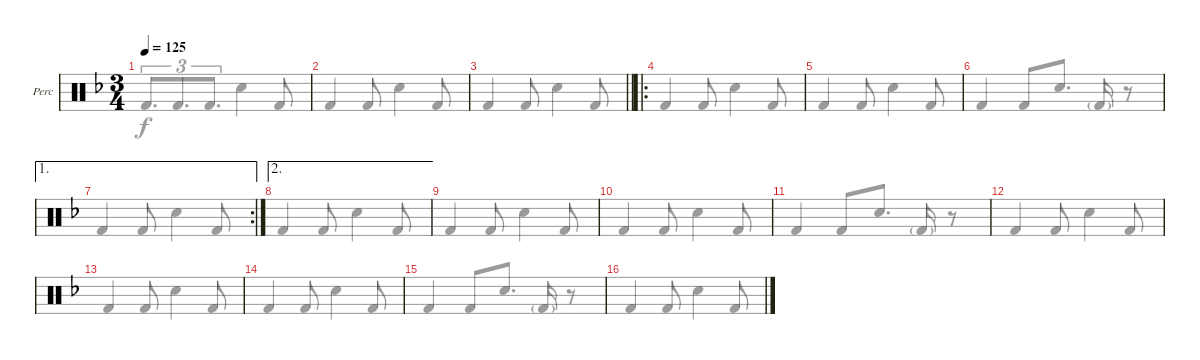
\defaultSystemsLayout 4
\bracketExtendMode groupsimilarinstruments
\firstSystemTrackNameOrientation horizontal
\otherSystemsTrackNameOrientation horizontal
\track ("Body Percussion" "Perc") {instrument percussion}
\staff {score}
\articulation defaults
\voice
\ts (3 4)
\scale
0.569949
\tempo 125
\accidentals auto
\clef neutral
\ottava regular
\simile none
\ks dminor
|
|
\barLineRight lightlight
|
\ro
|
|
|
\ae 1
\rc 2
|
\ae 2
|
|
|
|
|
|
|
|
\voice
\clef neutral
\ottava regular
\simile none
\ks dminor "Kick (hit) 2"{acc forcenatural}.8{d tu (3 2) dy f beam Up} "Kick (hit) 2"{acc forcenatural}.8{d tu (3 2) beam Up} "Kick (hit) 2"{acc forcenatural}.8{d tu (3 2) beam Up} "Snare (hit) 2"{acc forcenatural}.4{beam Down} "Kick (hit) 2"{acc forcenatural}.8{beam Up}
|
"Kick (hit) 2"{acc forcenatural}.4{beam Up} "Kick (hit) 2"{acc forcenatural}.8{beam Up} "Snare (hit) 2"{acc forcenatural}.4{beam Down} "Kick (hit) 2"{acc forcenatural}.8{beam Up} |
\barLineRight lightlight "Kick (hit) 2"{acc forcenatural}.4{beam Up} "Kick (hit) 2"{acc forcenatural}.8{beam Up} "Snare (hit) 2"{acc forcenatural}.4{beam Down} "Kick (hit) 2"{acc forcenatural}.8{beam Up}
|
"Kick (hit) 2"{acc forcenatural}.4{beam Up} "Kick (hit) 2"{acc forcenatural}.8{beam Up} "Snare (hit) 2"{acc forcenatural}.4{beam Down} "Kick (hit) 2"{acc forcenatural}.8{beam Up} |
"Kick (hit) 2"{acc forcenatural}.4{beam Up} "Kick (hit) 2"{acc forcenatural}.8{beam Up} "Snare (hit) 2"{acc forcenatural}.4{beam Down} "Kick (hit) 2"{acc forcenatural}.8{beam Up} |
"Kick (hit) 2"{acc forcenatural}.4{beam Up} "Kick (hit) 2"{acc forcenatural}.8{beam Up} "Snare (hit) 2"{acc forcenatural}.8{d beam Up} "Kick (hit) 2"{g acc forcenatural}.16{beam Up} r.8{beam Up} |
"Kick (hit) 2"{acc forcenatural}.4{beam Up} "Kick (hit) 2"{acc forcenatural}.8{beam Up} "Snare (hit) 2"{acc forcenatural}.4{beam Down} "Kick (hit) 2"{acc forcenatural}.8{beam Up} |
"Kick (hit) 2"{acc forcenatural}.4{beam Up} "Kick (hit) 2"{acc forcenatural}.8{beam Up} "Snare (hit) 2"{acc forcenatural}.4{beam Down} "Kick (hit) 2"{acc forcenatural}.8{beam Up} |
"Kick (hit) 2"{acc forcenatural}.4{beam Up} "Kick (hit) 2"{acc forcenatural}.8{beam Up} "Snare (hit) 2"{acc forcenatural}.4{beam Down} "Kick (hit) 2"{acc forcenatural}.8{beam Up} |
"Kick (hit) 2"{acc forcenatural}.4{beam Up} "Kick (hit) 2"{acc forcenatural}.8{beam Up} "Snare (hit) 2"{acc forcenatural}.4{beam Down} "Kick (hit) 2"{acc forcenatural}.8{beam Up} |
"Kick (hit) 2"{acc forcenatural}.4{beam Up} "Kick (hit) 2"{acc forcenatural}.8{beam Up} "Snare (hit) 2"{acc forcenatural}.8{d beam Up} "Kick (hit) 2"{g acc forcenatural}.16{beam Up} r.8{beam Up} |
"Kick (hit) 2"{acc forcenatural}.4{beam Up} "Kick (hit) 2"{acc forcenatural}.8{beam Up} "Snare (hit) 2"{acc forcenatural}.4{beam Down} "Kick (hit) 2"{acc forcenatural}.8{beam Up} |
"Kick (hit) 2"{acc forcenatural}.4{beam Up} "Kick (hit) 2"{acc forcenatural}.8{beam Up} "Snare (hit) 2"{acc forcenatural}.4{beam Down} "Kick (hit) 2"{acc forcenatural}.8{beam Up} |
"Kick (hit) 2"{acc forcenatural}.4{beam Up} "Kick (hit) 2"{acc forcenatural}.8{beam Up} "Snare (hit) 2"{acc forcenatural}.4{beam Down} "Kick (hit) 2"{acc forcenatural}.8{beam Up} |
"Kick (hit) 2"{acc forcenatural}.4{beam Up} "Kick (hit) 2"{acc forcenatural}.8{beam Up} "Snare (hit) 2"{acc forcenatural}.8{d beam Up} "Kick (hit) 2"{g acc forcenatural}.16{beam Up} r.8{beam Up} |
"Kick (hit) 2"{acc forcenatural}.4{beam Up} "Kick (hit) 2"{acc forcenatural}.8{beam Up} "Snare (hit) 2"{acc forcenatural}.4{beam Down} "Kick (hit) 2"{acc forcenatural}.8{beam Up}
